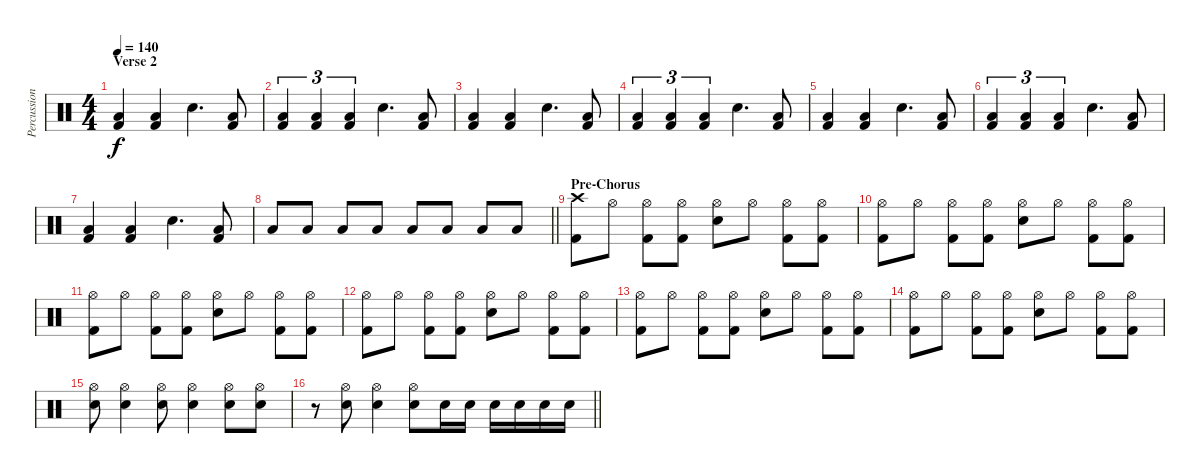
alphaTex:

\track ("Percussion (LP III)" "Percussion") {instrument percussion}
\staff {score}
\articulation defaults
\ts (4 4)
\section ("" "Verse 2")
\tempo 140
\clef neutral
\ks c
("Low Tom (hit)" "Kick (hit) 2").4{dy f} ("Low Tom (hit)" "Kick (hit) 2").4 "Snare (hit) 2".4{d} ("Low Tom (hit)" "Kick (hit) 2").8 |
("Low Tom (hit)" "Kick (hit) 2").4{tu (3 2)} ("Low Tom (hit)" "Kick (hit) 2").4{tu (3 2)} ("Low Tom (hit)" "Kick (hit) 2").4{tu (3 2)} "Snare (hit) 2".4{d} ("Low Tom (hit)" "Kick (hit) 2").8 |
("Low Tom (hit)" "Kick (hit) 2").4 ("Low Tom (hit)" "Kick (hit) 2").4 "Snare (hit) 2".4{d} ("Low Tom (hit)" "Kick (hit) 2").8 |
("Low Tom (hit)" "Kick (hit) 2").4{tu (3 2)} ("Low Tom (hit)" "Kick (hit) 2").4{tu (3 2)} ("Low Tom (hit)" "Kick (hit) 2").4{tu (3 2)} "Snare (hit) 2".4{d} ("Low Tom (hit)" "Kick (hit) 2").8 |
("Low Tom (hit)" "Kick (hit) 2").4 ("Low Tom (hit)" "Kick (hit) 2").4 "Snare (hit) 2".4{d} ("Low Tom (hit)" "Kick (hit) 2").8 |
("Low Tom (hit)" "Kick (hit) 2").4{tu (3 2)} ("Low Tom (hit)" "Kick (hit) 2").4{tu (3 2)} ("Low Tom (hit)" "Kick (hit) 2").4{tu (3 2)} "Snare (hit) 2".4{d} ("Low Tom (hit)" "Kick (hit) 2").8 |
("Low Tom (hit)" "Kick (hit) 2").4 ("Low Tom (hit)" "Kick (hit) 2").4 "Snare (hit) 2".4{d} ("Low Tom (hit)" "Kick (hit) 2").8 |
\barLineRight lightlight "Low Tom (hit)".8 "Low Tom (hit)".8 "Low Tom (hit)".8 "Low Tom (hit)".8 "Low Tom (hit)".8 "Low Tom (hit)".8 "Low Tom (hit)".8 "Low Tom (hit)".8
|
\section ("" "Pre-Chorus")
("Crash high (hit)" "Kick (hit) 2").8 "Hi-Hat (open)".8 ("Hi-Hat (open)" "Kick (hit) 2").8 ("Hi-Hat (open)" "Kick (hit) 2").8 ("Hi-Hat (open)" "Snare (hit) 2").8 "Hi-Hat (open)".8 ("Hi-Hat (open)" "Kick (hit) 2").8 ("Hi-Hat (open)" "Kick (hit) 2").8 |
("Hi-Hat (open)" "Kick (hit) 2").8 "Hi-Hat (open)".8 ("Hi-Hat (open)" "Kick (hit) 2").8 ("Hi-Hat (open)" "Kick (hit) 2").8 ("Hi-Hat (open)" "Snare (hit) 2").8 "Hi-Hat (open)".8 ("Hi-Hat (open)" "Kick (hit) 2").8 ("Hi-Hat (open)" "Kick (hit) 2").8 |
("Hi-Hat (open)" "Kick (hit) 2").8 "Hi-Hat (open)".8 ("Hi-Hat (open)" "Kick (hit) 2").8 ("Hi-Hat (open)" "Kick (hit) 2").8 ("Hi-Hat (open)" "Snare (hit) 2").8 "Hi-Hat (open)".8 ("Hi-Hat (open)" "Kick (hit) 2").8 ("Hi-Hat (open)" "Kick (hit) 2").8 |
("Hi-Hat (open)" "Kick (hit) 2").8 "Hi-Hat (open)".8 ("Hi-Hat (open)" "Kick (hit) 2").8 ("Hi-Hat (open)" "Kick (hit) 2").8 ("Hi-Hat (open)" "Snare (hit) 2").8 "Hi-Hat (open)".8 ("Hi-Hat (open)" "Kick (hit) 2").8 ("Hi-Hat (open)" "Kick (hit) 2").8 |
("Hi-Hat (open)" "Kick (hit) 2").8 "Hi-Hat (open)".8 ("Hi-Hat (open)" "Kick (hit) 2").8 ("Hi-Hat (open)" "Kick (hit) 2").8 ("Hi-Hat (open)" "Snare (hit) 2").8 "Hi-Hat (open)".8 ("Hi-Hat (open)" "Kick (hit) 2").8 ("Hi-Hat (open)" "Kick (hit) 2").8 |
("Hi-Hat (open)" "Kick (hit) 2").8 "Hi-Hat (open)".8 ("Hi-Hat (open)" "Kick (hit) 2").8 ("Hi-Hat (open)" "Kick (hit) 2").8 ("Hi-Hat (open)" "Snare (hit) 2").8 "Hi-Hat (open)".8 ("Hi-Hat (open)" "Kick (hit) 2").8 ("Hi-Hat (open)" "Kick (hit) 2").8 |
("Hi-Hat (open)" "Snare (hit) 2").8 ("Hi-Hat (open)" "Snare (hit) 2").4 ("Hi-Hat (open)" "Snare (hit) 2").8 ("Hi-Hat (open)" "Snare (hit) 2").4 ("Hi-Hat (open)" "Snare (hit) 2").8 ("Hi-Hat (open)" "Snare (hit) 2").8 |
\barLineRight lightlight
r.8 ("Hi-Hat (open)" "Snare (hit) 2").8 ("Hi-Hat (open)" "Snare (hit) 2").4 ("Hi-Hat (open)" "Snare (hit) 2").8 "Snare (hit) 2".16 "Snare (hit) 2".16 "Snare (hit) 2".16 "Snare (hit) 2".16 "Snare (hit) 2".16 "Snare (hit) 2".16
